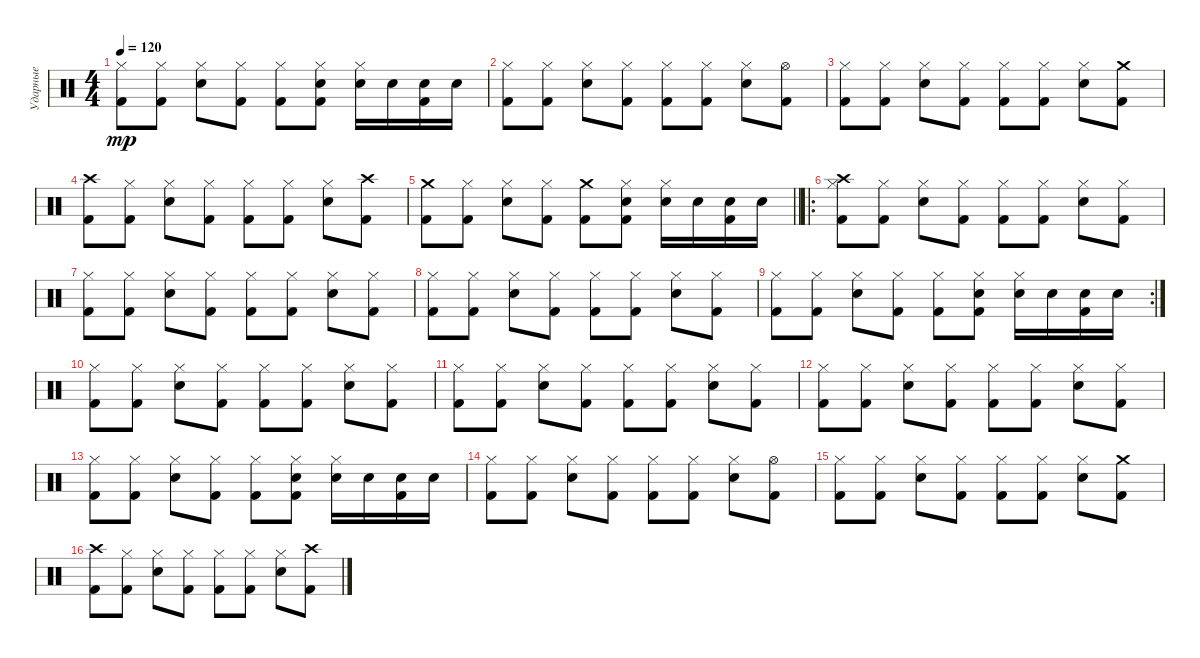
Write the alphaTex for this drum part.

\track ("Ударные" "Ударные") {instrument percussion}
\staff {score}
\articulation defaults
\ts (4 4)
\tempo 120
\clef neutral
\ks c
("Kick (hit) 2" "Hi-Hat (closed)").8{dy mp} ("Kick (hit) 2" "Hi-Hat (closed)").8 ("Snare (hit) 2" "Hi-Hat (closed)").8 ("Kick (hit) 2" "Hi-Hat (closed)").8 ("Kick (hit) 2" "Hi-Hat (closed)").8 ("Kick (hit) 2" "Snare (hit) 2" "Hi-Hat (closed)").8 ("Snare (hit) 2" "Hi-Hat (closed)").16 "Snare (hit) 2".16 ("Kick (hit) 2" "Snare (hit) 2").16 "Snare (hit) 2".16 |
("Kick (hit) 2" "Hi-Hat (closed)").8 ("Kick (hit) 2" "Hi-Hat (closed)").8 ("Snare (hit) 2" "Hi-Hat (closed)").8 ("Kick (hit) 2" "Hi-Hat (closed)").8 ("Kick (hit) 2" "Hi-Hat (closed)").8 ("Kick (hit) 2" "Hi-Hat (closed)").8 ("Snare (hit) 2" "Hi-Hat (closed)").8 ("Kick (hit) 2" "Hi-Hat (open)").8 |
("Kick (hit) 2" "Hi-Hat (closed)").8 ("Kick (hit) 2" "Hi-Hat (closed)").8 ("Snare (hit) 2" "Hi-Hat (closed)").8 ("Kick (hit) 2" "Hi-Hat (closed)").8 ("Kick (hit) 2" "Hi-Hat (closed)").8 ("Kick (hit) 2" "Hi-Hat (closed)").8 ("Snare (hit) 2" "Hi-Hat (closed)").8 ("Kick (hit) 2" "Crash medium (hit)").8 |
("Kick (hit) 2" "Crash high (hit)").8 ("Kick (hit) 2" "Hi-Hat (closed)").8 ("Snare (hit) 2" "Hi-Hat (closed)").8 ("Kick (hit) 2" "Hi-Hat (closed)").8 ("Kick (hit) 2" "Hi-Hat (closed)").8 ("Kick (hit) 2" "Hi-Hat (closed)").8 ("Snare (hit) 2" "Hi-Hat (closed)").8 ("Kick (hit) 2" "Crash high (hit)").8 |
\barLineRight lightlight
("Kick (hit) 2" "Crash medium (hit)").8 ("Kick (hit) 2" "Hi-Hat (closed)").8 ("Snare (hit) 2" "Hi-Hat (closed)").8 ("Kick (hit) 2" "Hi-Hat (closed)").8 ("Kick (hit) 2" "Crash medium (hit)").8 ("Kick (hit) 2" "Snare (hit) 2" "Hi-Hat (closed)").8 ("Snare (hit) 2" "Hi-Hat (closed)").16 "Snare (hit) 2".16 ("Kick (hit) 2" "Snare (hit) 2").16 "Snare (hit) 2".16 |
\ro
("Kick (hit) 2" "Hi-Hat (closed)" "Crash high (hit)").8 ("Kick (hit) 2" "Hi-Hat (closed)").8 ("Snare (hit) 2" "Hi-Hat (closed)").8 ("Kick (hit) 2" "Hi-Hat (closed)").8 ("Kick (hit) 2" "Hi-Hat (closed)").8 ("Kick (hit) 2" "Hi-Hat (closed)").8 ("Snare (hit) 2" "Hi-Hat (closed)").8 ("Kick (hit) 2" "Hi-Hat (closed)").8 |
("Kick (hit) 2" "Hi-Hat (closed)").8 ("Kick (hit) 2" "Hi-Hat (closed)").8 ("Snare (hit) 2" "Hi-Hat (closed)").8 ("Kick (hit) 2" "Hi-Hat (closed)").8 ("Kick (hit) 2" "Hi-Hat (closed)").8 ("Kick (hit) 2" "Hi-Hat (closed)").8 ("Snare (hit) 2" "Hi-Hat (closed)").8 ("Kick (hit) 2" "Hi-Hat (closed)").8 |
("Kick (hit) 2" "Hi-Hat (closed)").8 ("Kick (hit) 2" "Hi-Hat (closed)").8 ("Snare (hit) 2" "Hi-Hat (closed)").8 ("Kick (hit) 2" "Hi-Hat (closed)").8 ("Kick (hit) 2" "Hi-Hat (closed)").8 ("Kick (hit) 2" "Hi-Hat (closed)").8 ("Snare (hit) 2" "Hi-Hat (closed)").8 ("Kick (hit) 2" "Hi-Hat (closed)").8 |
\rc 2
("Kick (hit) 2" "Hi-Hat (closed)").8 ("Kick (hit) 2" "Hi-Hat (closed)").8 ("Snare (hit) 2" "Hi-Hat (closed)").8 ("Kick (hit) 2" "Hi-Hat (closed)").8 ("Kick (hit) 2" "Hi-Hat (closed)").8 ("Kick (hit) 2" "Snare (hit) 2" "Hi-Hat (closed)").8 ("Snare (hit) 2" "Hi-Hat (closed)").16 "Snare (hit) 2".16 ("Kick (hit) 2" "Snare (hit) 2").16 "Snare (hit) 2".16 |
("Kick (hit) 2" "Hi-Hat (closed)").8 ("Kick (hit) 2" "Hi-Hat (closed)").8 ("Snare (hit) 2" "Hi-Hat (closed)").8 ("Kick (hit) 2" "Hi-Hat (closed)").8 ("Kick (hit) 2" "Hi-Hat (closed)").8 ("Kick (hit) 2" "Hi-Hat (closed)").8 ("Snare (hit) 2" "Hi-Hat (closed)").8 ("Kick (hit) 2" "Hi-Hat (closed)").8 |
("Kick (hit) 2" "Hi-Hat (closed)").8 ("Kick (hit) 2" "Hi-Hat (closed)").8 ("Snare (hit) 2" "Hi-Hat (closed)").8 ("Kick (hit) 2" "Hi-Hat (closed)").8 ("Kick (hit) 2" "Hi-Hat (closed)").8 ("Kick (hit) 2" "Hi-Hat (closed)").8 ("Snare (hit) 2" "Hi-Hat (closed)").8 ("Kick (hit) 2" "Hi-Hat (closed)").8 |
("Kick (hit) 2" "Hi-Hat (closed)").8 ("Kick (hit) 2" "Hi-Hat (closed)").8 ("Snare (hit) 2" "Hi-Hat (closed)").8 ("Kick (hit) 2" "Hi-Hat (closed)").8 ("Kick (hit) 2" "Hi-Hat (closed)").8 ("Kick (hit) 2" "Hi-Hat (closed)").8 ("Snare (hit) 2" "Hi-Hat (closed)").8 ("Kick (hit) 2" "Hi-Hat (closed)").8 |
("Kick (hit) 2" "Hi-Hat (closed)").8 ("Kick (hit) 2" "Hi-Hat (closed)").8 ("Snare (hit) 2" "Hi-Hat (closed)").8 ("Kick (hit) 2" "Hi-Hat (closed)").8 ("Kick (hit) 2" "Hi-Hat (closed)").8 ("Kick (hit) 2" "Snare (hit) 2" "Hi-Hat (closed)").8 ("Snare (hit) 2" "Hi-Hat (closed)").16 "Snare (hit) 2".16 ("Kick (hit) 2" "Snare (hit) 2").16 "Snare (hit) 2".16 |
("Kick (hit) 2" "Hi-Hat (closed)").8 ("Kick (hit) 2" "Hi-Hat (closed)").8 ("Snare (hit) 2" "Hi-Hat (closed)").8 ("Kick (hit) 2" "Hi-Hat (closed)").8 ("Kick (hit) 2" "Hi-Hat (closed)").8 ("Kick (hit) 2" "Hi-Hat (closed)").8 ("Snare (hit) 2" "Hi-Hat (closed)").8 ("Kick (hit) 2" "Hi-Hat (open)").8 |
("Kick (hit) 2" "Hi-Hat (closed)").8 ("Kick (hit) 2" "Hi-Hat (closed)").8 ("Snare (hit) 2" "Hi-Hat (closed)").8 ("Kick (hit) 2" "Hi-Hat (closed)").8 ("Kick (hit) 2" "Hi-Hat (closed)").8 ("Kick (hit) 2" "Hi-Hat (closed)").8 ("Snare (hit) 2" "Hi-Hat (closed)").8 ("Kick (hit) 2" "Crash medium (hit)").8 |
("Kick (hit) 2" "Crash high (hit)").8 ("Kick (hit) 2" "Hi-Hat (closed)").8 ("Snare (hit) 2" "Hi-Hat (closed)").8 ("Kick (hit) 2" "Hi-Hat (closed)").8 ("Kick (hit) 2" "Hi-Hat (closed)").8 ("Kick (hit) 2" "Hi-Hat (closed)").8 ("Snare (hit) 2" "Hi-Hat (closed)").8 ("Kick (hit) 2" "Crash high (hit)").8
